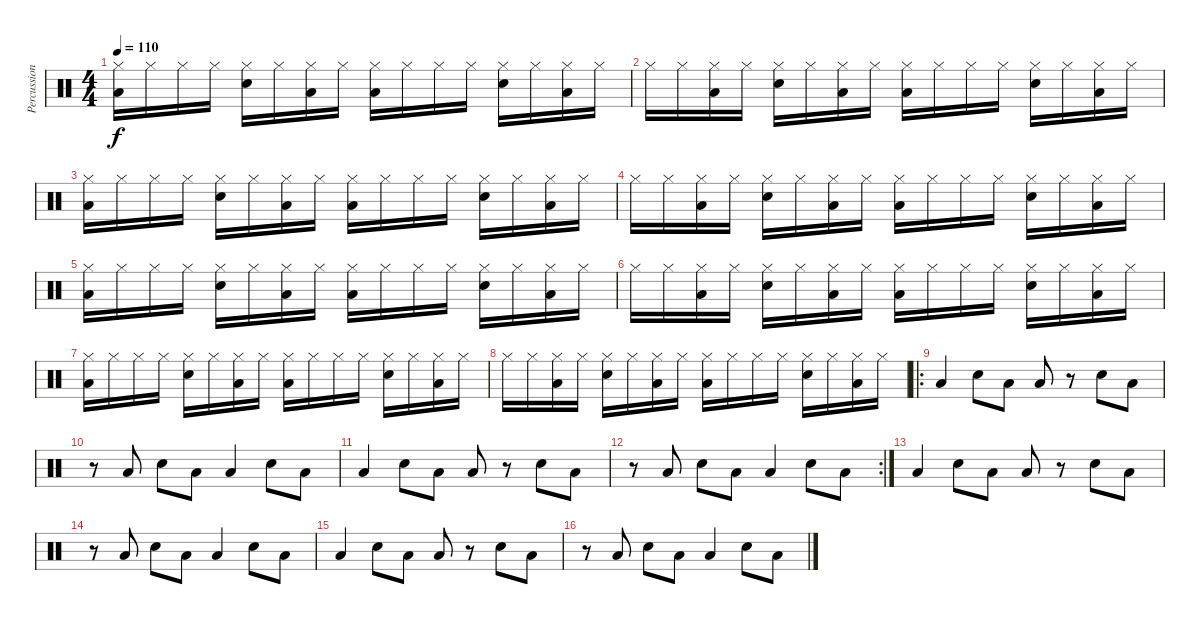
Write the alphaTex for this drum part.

\track ("Percussion" "Percussion") {instrument percussion}
\staff {score}
\articulation defaults
\ts (4 4)
\tempo 110
\clef neutral
\ks c
("Hi-Hat (closed)" "Low Tom (hit)").16{dy f} "Hi-Hat (closed)".16 "Hi-Hat (closed)".16 "Hi-Hat (closed)".16 ("Hi-Hat (closed)" "Electric Snare (hit)").16 "Hi-Hat (closed)".16 ("Hi-Hat (closed)" "Low Tom (hit)").16 "Hi-Hat (closed)".16 ("Hi-Hat (closed)" "Low Tom (hit)").16 "Hi-Hat (closed)".16 "Hi-Hat (closed)".16 "Hi-Hat (closed)".16 ("Hi-Hat (closed)" "Electric Snare (hit)").16 "Hi-Hat (closed)".16 ("Hi-Hat (closed)" "Low Tom (hit)").16 "Hi-Hat (closed)".16 |
"Hi-Hat (closed)".16 "Hi-Hat (closed)".16 ("Hi-Hat (closed)" "Low Tom (hit)").16 "Hi-Hat (closed)".16 ("Hi-Hat (closed)" "Electric Snare (hit)").16 "Hi-Hat (closed)".16 ("Hi-Hat (closed)" "Low Tom (hit)").16 "Hi-Hat (closed)".16 ("Hi-Hat (closed)" "Low Tom (hit)").16 "Hi-Hat (closed)".16 "Hi-Hat (closed)".16 "Hi-Hat (closed)".16 ("Hi-Hat (closed)" "Electric Snare (hit)").16 "Hi-Hat (closed)".16 ("Hi-Hat (closed)" "Low Tom (hit)").16 "Hi-Hat (closed)".16 |
("Hi-Hat (closed)" "Low Tom (hit)").16 "Hi-Hat (closed)".16 "Hi-Hat (closed)".16 "Hi-Hat (closed)".16 ("Hi-Hat (closed)" "Electric Snare (hit)").16 "Hi-Hat (closed)".16 ("Hi-Hat (closed)" "Low Tom (hit)").16 "Hi-Hat (closed)".16 ("Hi-Hat (closed)" "Low Tom (hit)").16 "Hi-Hat (closed)".16 "Hi-Hat (closed)".16 "Hi-Hat (closed)".16 ("Hi-Hat (closed)" "Electric Snare (hit)").16 "Hi-Hat (closed)".16 ("Hi-Hat (closed)" "Low Tom (hit)").16 "Hi-Hat (closed)".16 |
"Hi-Hat (closed)".16 "Hi-Hat (closed)".16 ("Hi-Hat (closed)" "Low Tom (hit)").16 "Hi-Hat (closed)".16 ("Hi-Hat (closed)" "Electric Snare (hit)").16 "Hi-Hat (closed)".16 ("Hi-Hat (closed)" "Low Tom (hit)").16 "Hi-Hat (closed)".16 ("Hi-Hat (closed)" "Low Tom (hit)").16 "Hi-Hat (closed)".16 "Hi-Hat (closed)".16 "Hi-Hat (closed)".16 ("Hi-Hat (closed)" "Electric Snare (hit)").16 "Hi-Hat (closed)".16 ("Hi-Hat (closed)" "Low Tom (hit)").16 "Hi-Hat (closed)".16 |
("Hi-Hat (closed)" "Low Tom (hit)").16 "Hi-Hat (closed)".16 "Hi-Hat (closed)".16 "Hi-Hat (closed)".16 ("Hi-Hat (closed)" "Electric Snare (hit)").16 "Hi-Hat (closed)".16 ("Hi-Hat (closed)" "Low Tom (hit)").16 "Hi-Hat (closed)".16 ("Hi-Hat (closed)" "Low Tom (hit)").16 "Hi-Hat (closed)".16 "Hi-Hat (closed)".16 "Hi-Hat (closed)".16 ("Hi-Hat (closed)" "Electric Snare (hit)").16 "Hi-Hat (closed)".16 ("Hi-Hat (closed)" "Low Tom (hit)").16 "Hi-Hat (closed)".16 |
"Hi-Hat (closed)".16 "Hi-Hat (closed)".16 ("Hi-Hat (closed)" "Low Tom (hit)").16 "Hi-Hat (closed)".16 ("Hi-Hat (closed)" "Electric Snare (hit)").16 "Hi-Hat (closed)".16 ("Hi-Hat (closed)" "Low Tom (hit)").16 "Hi-Hat (closed)".16 ("Hi-Hat (closed)" "Low Tom (hit)").16 "Hi-Hat (closed)".16 "Hi-Hat (closed)".16 "Hi-Hat (closed)".16 ("Hi-Hat (closed)" "Electric Snare (hit)").16 "Hi-Hat (closed)".16 ("Hi-Hat (closed)" "Low Tom (hit)").16 "Hi-Hat (closed)".16 |
("Hi-Hat (closed)" "Low Tom (hit)").16 "Hi-Hat (closed)".16 "Hi-Hat (closed)".16 "Hi-Hat (closed)".16 ("Hi-Hat (closed)" "Electric Snare (hit)").16 "Hi-Hat (closed)".16 ("Hi-Hat (closed)" "Low Tom (hit)").16 "Hi-Hat (closed)".16 ("Hi-Hat (closed)" "Low Tom (hit)").16 "Hi-Hat (closed)".16 "Hi-Hat (closed)".16 "Hi-Hat (closed)".16 ("Hi-Hat (closed)" "Electric Snare (hit)").16 "Hi-Hat (closed)".16 ("Hi-Hat (closed)" "Low Tom (hit)").16 "Hi-Hat (closed)".16 |
"Hi-Hat (closed)".16 "Hi-Hat (closed)".16 ("Hi-Hat (closed)" "Low Tom (hit)").16 "Hi-Hat (closed)".16 ("Hi-Hat (closed)" "Electric Snare (hit)").16 "Hi-Hat (closed)".16 ("Hi-Hat (closed)" "Low Tom (hit)").16 "Hi-Hat (closed)".16 ("Hi-Hat (closed)" "Low Tom (hit)").16 "Hi-Hat (closed)".16 "Hi-Hat (closed)".16 "Hi-Hat (closed)".16 ("Hi-Hat (closed)" "Electric Snare (hit)").16 "Hi-Hat (closed)".16 ("Hi-Hat (closed)" "Low Tom (hit)").16 "Hi-Hat (closed)".16 |
\ro "Low Tom (hit)".4 "Electric Snare (hit)".8 "Low Tom (hit)".8 "Low Tom (hit)".8
r.8 "Electric Snare (hit)".8 "Low Tom (hit)".8 |
r.8 "Low Tom (hit)".8 "Electric Snare (hit)".8 "Low Tom (hit)".8 "Low Tom (hit)".4 "Electric Snare (hit)".8 "Low Tom (hit)".8 |
"Low Tom (hit)".4 "Electric Snare (hit)".8 "Low Tom (hit)".8 "Low Tom (hit)".8 r.8 "Electric Snare (hit)".8 "Low Tom (hit)".8 |
\rc 2
r.8 "Low Tom (hit)".8 "Electric Snare (hit)".8 "Low Tom (hit)".8 "Low Tom (hit)".4 "Electric Snare (hit)".8 "Low Tom (hit)".8 |
"Low Tom (hit)".4 "Hand Clap (hit)".8 "Low Tom (hit)".8 "Low Tom (hit)".8 r.8 "Hand Clap (hit)".8 "Low Tom (hit)".8 |
r.8 "Low Tom (hit)".8 "Hand Clap (hit)".8 "Low Tom (hit)".8 "Low Tom (hit)".4 "Hand Clap (hit)".8 "Low Tom (hit)".8 |
"Low Tom (hit)".4 "Hand Clap (hit)".8 "Low Tom (hit)".8 "Low Tom (hit)".8 r.8 "Hand Clap (hit)".8 "Low Tom (hit)".8 |
r.8 "Low Tom (hit)".8 "Hand Clap (hit)".8 "Low Tom (hit)".8 "Low Tom (hit)".4 "Hand Clap (hit)".8 "Low Tom (hit)".8
